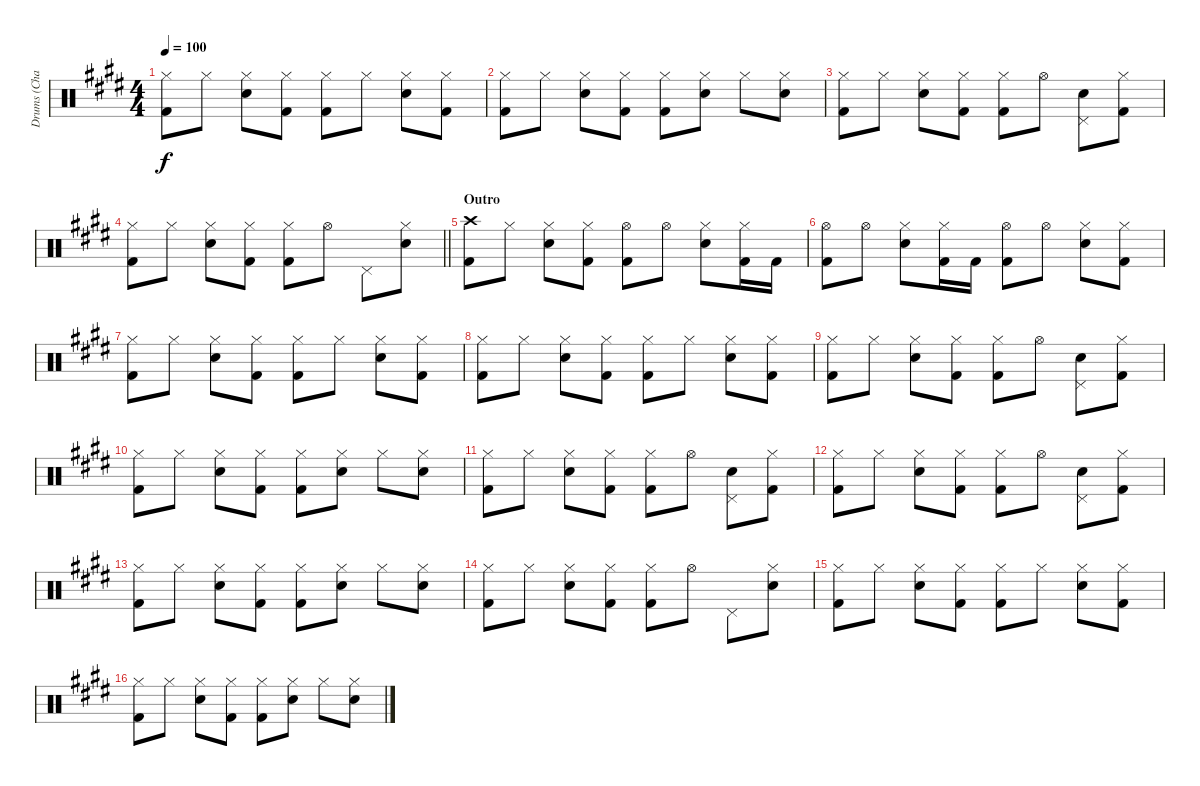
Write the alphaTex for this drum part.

\track ("Drums (Charlie)" "Drums (Cha") {instrument percussion}
\staff {score}
\articulation defaults
\ts (4 4)
\tempo 100
\clef neutral
\ks c#minor
("Hi-Hat (closed)" "Kick (hit) 2").8{dy f} "Hi-Hat (closed)".8 ("Hi-Hat (closed)" "Snare (hit) 2").8 ("Hi-Hat (closed)" "Kick (hit) 2").8 ("Hi-Hat (closed)" "Kick (hit) 2").8 "Hi-Hat (closed)".8 ("Hi-Hat (closed)" "Snare (hit) 2").8 ("Hi-Hat (closed)" "Kick (hit) 2").8 |
("Hi-Hat (closed)" "Kick (hit) 2").8 "Hi-Hat (closed)".8 ("Hi-Hat (closed)" "Snare (hit) 2").8 ("Hi-Hat (closed)" "Kick (hit) 2").8 ("Hi-Hat (closed)" "Kick (hit) 2").8 ("Hi-Hat (closed)" "Snare (hit) 2").8 "Hi-Hat (closed)".8 ("Hi-Hat (closed)" "Snare (hit) 2").8 |
\ks e
("Hi-Hat (closed)" "Kick (hit) 2").8 "Hi-Hat (closed)".8 ("Hi-Hat (closed)" "Snare (hit) 2").8 ("Hi-Hat (closed)" "Kick (hit) 2").8 ("Hi-Hat (closed)" "Kick (hit) 2").8 "Hi-Hat (open)".8 ("Pedal Hi-Hat (hit)" "Snare (hit) 2").8 ("Hi-Hat (closed)" "Kick (hit) 2").8 |
\barLineRight lightlight
\ks c#minor
("Hi-Hat (closed)" "Kick (hit) 2").8 "Hi-Hat (closed)".8 ("Hi-Hat (closed)" "Snare (hit) 2").8 ("Hi-Hat (closed)" "Kick (hit) 2").8 ("Hi-Hat (closed)" "Kick (hit) 2").8 "Hi-Hat (open)".8 "Pedal Hi-Hat (hit)".8 ("Hi-Hat (closed)" "Snare (hit) 2").8 |
\section ("" "Outro")
("Crash high (hit)" "Kick (hit) 2").8 "Hi-Hat (closed)".8 ("Hi-Hat (closed)" "Snare (hit) 2").8 ("Hi-Hat (closed)" "Kick (hit) 2").8 ("Hi-Hat (open)" "Kick (hit) 2").8 "Hi-Hat (open)".8 ("Hi-Hat (closed)" "Snare (hit) 2").8 ("Hi-Hat (closed)" "Kick (hit) 2").16 "Kick (hit) 2".16 |
\ks e
("Hi-Hat (open)" "Kick (hit) 2").8 "Hi-Hat (open)".8 ("Hi-Hat (closed)" "Snare (hit) 2").8 ("Hi-Hat (closed)" "Kick (hit) 2").16 "Kick (hit) 2".16 ("Hi-Hat (open)" "Kick (hit) 2").8 "Hi-Hat (open)".8 ("Hi-Hat (closed)" "Snare (hit) 2").8 ("Hi-Hat (closed)" "Kick (hit) 2").8 |
\ks c#minor
("Hi-Hat (closed)" "Kick (hit) 2").8 "Hi-Hat (closed)".8 ("Hi-Hat (closed)" "Snare (hit) 2").8 ("Hi-Hat (closed)" "Kick (hit) 2").8 ("Hi-Hat (closed)" "Kick (hit) 2").8 "Hi-Hat (closed)".8 ("Hi-Hat (closed)" "Snare (hit) 2").8 ("Hi-Hat (closed)" "Kick (hit) 2").8 |
("Hi-Hat (closed)" "Kick (hit) 2").8 "Hi-Hat (closed)".8 ("Hi-Hat (closed)" "Snare (hit) 2").8 ("Hi-Hat (closed)" "Kick (hit) 2").8 ("Hi-Hat (closed)" "Kick (hit) 2").8 "Hi-Hat (closed)".8 ("Hi-Hat (closed)" "Snare (hit) 2").8 ("Hi-Hat (closed)" "Kick (hit) 2").8 |
\ks e
("Hi-Hat (closed)" "Kick (hit) 2").8 "Hi-Hat (closed)".8 ("Hi-Hat (closed)" "Snare (hit) 2").8 ("Hi-Hat (closed)" "Kick (hit) 2").8 ("Hi-Hat (closed)" "Kick (hit) 2").8 "Hi-Hat (open)".8 ("Pedal Hi-Hat (hit)" "Snare (hit) 2").8 ("Hi-Hat (closed)" "Kick (hit) 2").8 |
\ks c#minor
("Hi-Hat (closed)" "Kick (hit) 2").8 "Hi-Hat (closed)".8 ("Hi-Hat (closed)" "Snare (hit) 2").8 ("Hi-Hat (closed)" "Kick (hit) 2").8 ("Hi-Hat (closed)" "Kick (hit) 2").8 ("Hi-Hat (closed)" "Snare (hit) 2").8 "Hi-Hat (closed)".8 ("Hi-Hat (closed)" "Snare (hit) 2").8 |
("Hi-Hat (closed)" "Kick (hit) 2").8 "Hi-Hat (closed)".8 ("Hi-Hat (closed)" "Snare (hit) 2").8 ("Hi-Hat (closed)" "Kick (hit) 2").8 ("Hi-Hat (closed)" "Kick (hit) 2").8 "Hi-Hat (open)".8 ("Pedal Hi-Hat (hit)" "Snare (hit) 2").8 ("Hi-Hat (closed)" "Kick (hit) 2").8 |
\ks e
("Hi-Hat (closed)" "Kick (hit) 2").8 "Hi-Hat (closed)".8 ("Hi-Hat (closed)" "Snare (hit) 2").8 ("Hi-Hat (closed)" "Kick (hit) 2").8 ("Hi-Hat (closed)" "Kick (hit) 2").8 "Hi-Hat (open)".8 ("Pedal Hi-Hat (hit)" "Snare (hit) 2").8 ("Hi-Hat (closed)" "Kick (hit) 2").8 |
\ks c#minor
("Hi-Hat (closed)" "Kick (hit) 2").8 "Hi-Hat (closed)".8 ("Hi-Hat (closed)" "Snare (hit) 2").8 ("Hi-Hat (closed)" "Kick (hit) 2").8 ("Hi-Hat (closed)" "Kick (hit) 2").8 ("Hi-Hat (closed)" "Snare (hit) 2").8 "Hi-Hat (closed)".8 ("Hi-Hat (closed)" "Snare (hit) 2").8 |
("Hi-Hat (closed)" "Kick (hit) 2").8 "Hi-Hat (closed)".8 ("Hi-Hat (closed)" "Snare (hit) 2").8 ("Hi-Hat (closed)" "Kick (hit) 2").8 ("Hi-Hat (closed)" "Kick (hit) 2").8 "Hi-Hat (open)".8 "Pedal Hi-Hat (hit)".8 ("Hi-Hat (closed)" "Snare (hit) 2").8 |
\ks e
("Hi-Hat (closed)" "Kick (hit) 2").8 "Hi-Hat (closed)".8 ("Hi-Hat (closed)" "Snare (hit) 2").8 ("Hi-Hat (closed)" "Kick (hit) 2").8 ("Hi-Hat (closed)" "Kick (hit) 2").8 "Hi-Hat (closed)".8 ("Hi-Hat (closed)" "Snare (hit) 2").8 ("Hi-Hat (closed)" "Kick (hit) 2").8 |
\ks c#minor
("Hi-Hat (closed)" "Kick (hit) 2").8 "Hi-Hat (closed)".8 ("Hi-Hat (closed)" "Snare (hit) 2").8 ("Hi-Hat (closed)" "Kick (hit) 2").8 ("Hi-Hat (closed)" "Kick (hit) 2").8 ("Hi-Hat (closed)" "Snare (hit) 2").8 "Hi-Hat (closed)".8 ("Hi-Hat (closed)" "Snare (hit) 2").8
